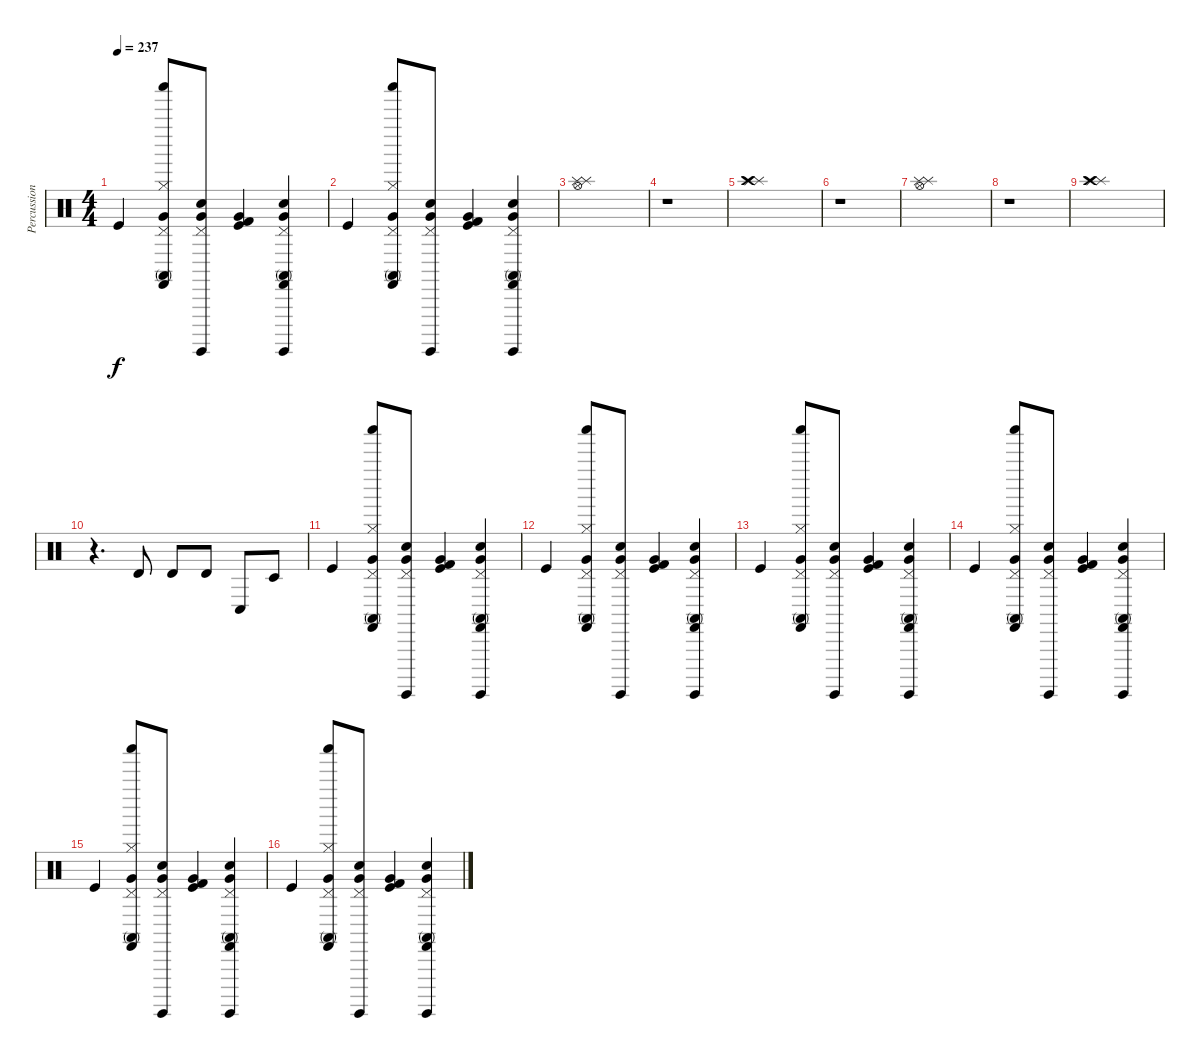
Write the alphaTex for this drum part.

\track ("Percussions" "Percussion") {instrument percussion}
\staff {score}
\articulation defaults
\ts (4 4)
\tempo 237
\clef neutral
\ks c "Kick (hit)".4{dy f}
("Hi-Hat (closed)" "Shaker (hit)" "Pedal Hi-Hat (hit)" "Very Low Tom (hit)" "Conga high (mute)" "Castanets (hit)").8 ("Hand Clap (hit)" "Surdo (hit)" "Pedal Hi-Hat (hit)" "Very Low Tom (hit)").8 ("Kick (hit)" "Kick (hit) 2" "Very Low Tom (hit)").4 ("Hand Clap (hit)" "Surdo (hit)" "Pedal Hi-Hat (hit)" "Very Low Tom (hit)" "Conga high (mute)" "Castanets (hit)").4 |
"Kick (hit)".4 ("Hi-Hat (closed)" "Shaker (hit)" "Pedal Hi-Hat (hit)" "Very Low Tom (hit)" "Conga high (mute)" "Castanets (hit)").8 ("Hand Clap (hit)" "Surdo (hit)" "Pedal Hi-Hat (hit)" "Very Low Tom (hit)").8 ("Kick (hit)" "Kick (hit) 2" "Very Low Tom (hit)").4 ("Hand Clap (hit)" "Surdo (hit)" "Pedal Hi-Hat (hit)" "Very Low Tom (hit)" "Conga high (mute)" "Castanets (hit)").4 |
("Splash (hit)" "Hi-Hat (open)" "Splash (hit)").1 |
r.1 |
("Splash (hit)" "Crash high (hit)" "Splash (hit)").1 |
r.1 |
("Splash (hit)" "Hi-Hat (open)" "Splash (hit)").1 |
r.1 |
("Splash (hit)" "Crash high (hit)" "Splash (hit)").1 |
r.4{d} "Timbale high (hit)".8 "Timbale high (hit)".8 "Timbale high (hit)".8 "Conga low (hit)".8 "Timbale low (hit)".8 |
"Kick (hit)".4 ("Hi-Hat (closed)" "Shaker (hit)" "Pedal Hi-Hat (hit)" "Very Low Tom (hit)" "Conga high (mute)" "Castanets (hit)").8 ("Hand Clap (hit)" "Surdo (hit)" "Pedal Hi-Hat (hit)" "Very Low Tom (hit)").8 ("Kick (hit)" "Kick (hit) 2" "Very Low Tom (hit)").4 ("Hand Clap (hit)" "Surdo (hit)" "Pedal Hi-Hat (hit)" "Very Low Tom (hit)" "Conga high (mute)" "Castanets (hit)").4 |
"Kick (hit)".4 ("Hi-Hat (closed)" "Shaker (hit)" "Pedal Hi-Hat (hit)" "Very Low Tom (hit)" "Conga high (mute)" "Castanets (hit)").8 ("Hand Clap (hit)" "Surdo (hit)" "Pedal Hi-Hat (hit)" "Very Low Tom (hit)").8 ("Kick (hit)" "Kick (hit) 2" "Very Low Tom (hit)").4 ("Hand Clap (hit)" "Surdo (hit)" "Pedal Hi-Hat (hit)" "Very Low Tom (hit)" "Conga high (mute)" "Castanets (hit)").4 |
"Kick (hit)".4 ("Hi-Hat (closed)" "Shaker (hit)" "Pedal Hi-Hat (hit)" "Very Low Tom (hit)" "Conga high (mute)" "Castanets (hit)").8 ("Hand Clap (hit)" "Surdo (hit)" "Pedal Hi-Hat (hit)" "Very Low Tom (hit)").8 ("Kick (hit)" "Kick (hit) 2" "Very Low Tom (hit)").4 ("Hand Clap (hit)" "Surdo (hit)" "Pedal Hi-Hat (hit)" "Very Low Tom (hit)" "Conga high (mute)" "Castanets (hit)").4 |
"Kick (hit)".4 ("Hi-Hat (closed)" "Shaker (hit)" "Pedal Hi-Hat (hit)" "Very Low Tom (hit)" "Conga high (mute)" "Castanets (hit)").8 ("Hand Clap (hit)" "Surdo (hit)" "Pedal Hi-Hat (hit)" "Very Low Tom (hit)").8 ("Kick (hit)" "Kick (hit) 2" "Very Low Tom (hit)").4 ("Hand Clap (hit)" "Surdo (hit)" "Pedal Hi-Hat (hit)" "Very Low Tom (hit)" "Conga high (mute)" "Castanets (hit)").4 |
"Kick (hit)".4 ("Hi-Hat (closed)" "Shaker (hit)" "Pedal Hi-Hat (hit)" "Very Low Tom (hit)" "Conga high (mute)" "Castanets (hit)").8 ("Hand Clap (hit)" "Surdo (hit)" "Pedal Hi-Hat (hit)" "Very Low Tom (hit)").8 ("Kick (hit)" "Kick (hit) 2" "Very Low Tom (hit)").4 ("Hand Clap (hit)" "Surdo (hit)" "Pedal Hi-Hat (hit)" "Very Low Tom (hit)" "Conga high (mute)" "Castanets (hit)").4 |
"Kick (hit)".4 ("Hi-Hat (closed)" "Shaker (hit)" "Pedal Hi-Hat (hit)" "Very Low Tom (hit)" "Conga high (mute)" "Castanets (hit)").8 ("Hand Clap (hit)" "Surdo (hit)" "Pedal Hi-Hat (hit)" "Very Low Tom (hit)").8 ("Kick (hit)" "Kick (hit) 2" "Very Low Tom (hit)").4 ("Hand Clap (hit)" "Surdo (hit)" "Pedal Hi-Hat (hit)" "Very Low Tom (hit)" "Conga high (mute)" "Castanets (hit)").4
